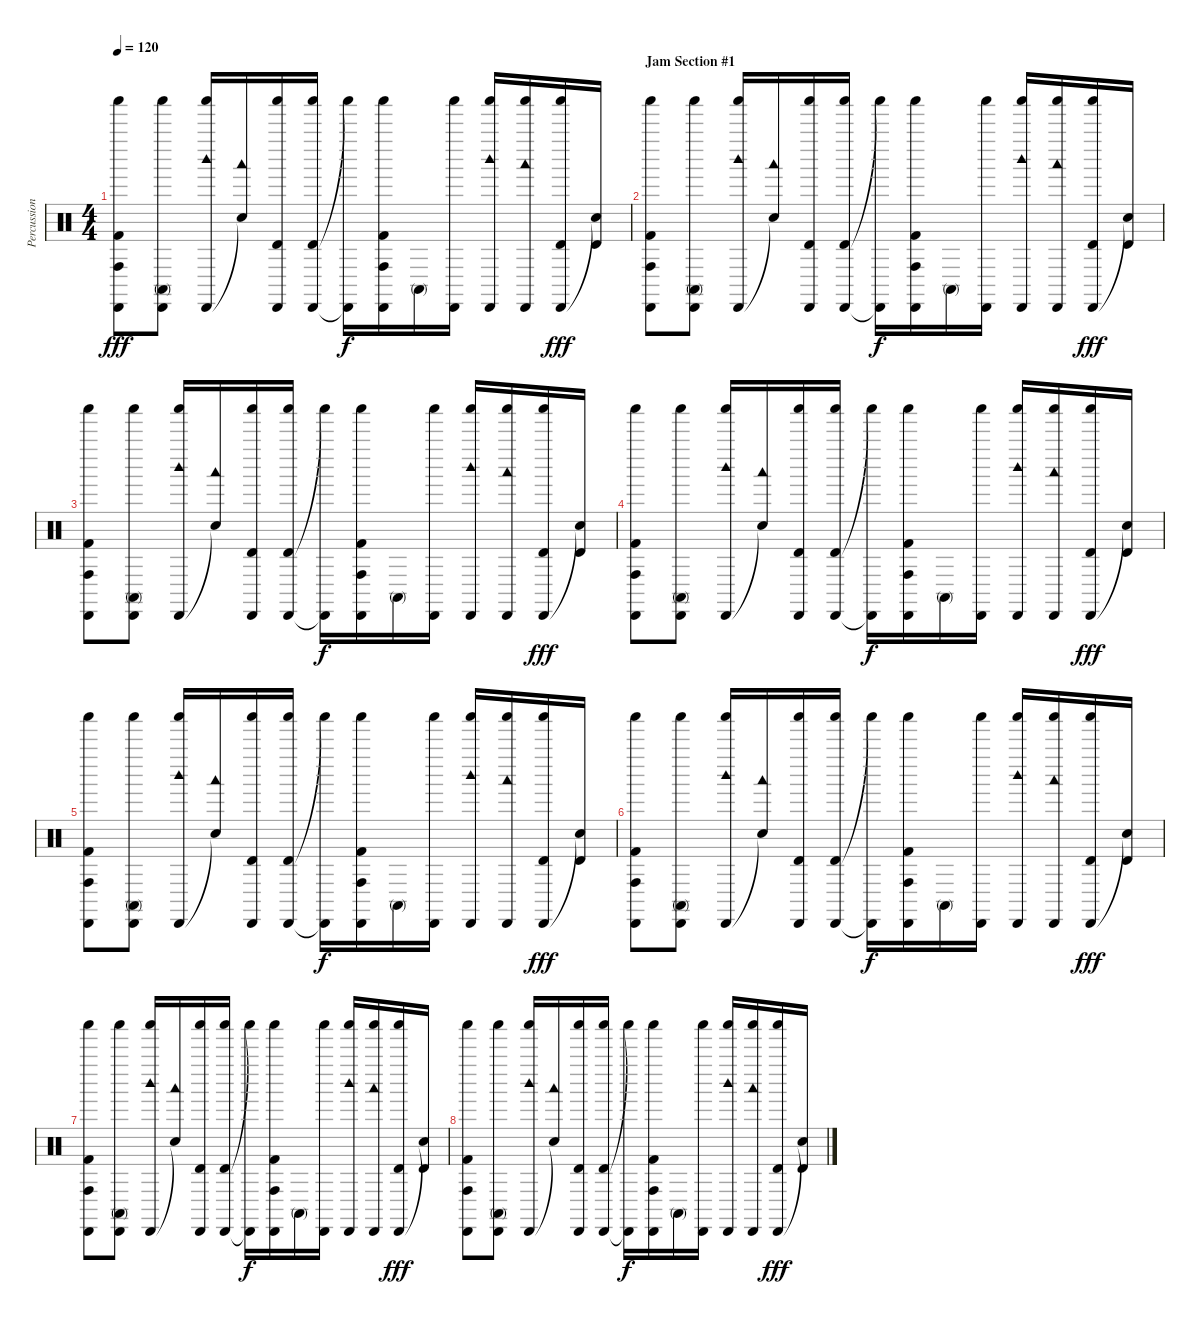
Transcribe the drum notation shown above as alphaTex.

\track ("Percussion" "Percussion") {instrument percussion}
\staff {score}
\articulation defaults
\ts (4 4)
\tempo 120
\clef neutral
\ks c
("Cabasa (hit)" "Conga high (hit)" "Kick (hit) 2" "Shaker (hit)").8{dy fff} ("Cabasa (hit)" "Conga high (mute)" "Shaker (hit)").8 ("Cabasa (hit)" "Woodblock high (hit)" "Shaker (hit)").16 ("Snare (hit)"{t} "Woodblock low (hit)").16 ("Cabasa (hit)" "Timbale high (hit)" "Shaker (hit)").16 ("Cabasa (hit)" "Timbale high (hit)" "Shaker (hit)").16 ("Cabasa (hit)"{t} "Shaker (hit)"{t}).16{dy f} ("Cabasa (hit)" "Conga high (hit)" "Kick (hit) 2" "Shaker (hit)").16 "Conga high (mute)".16 ("Cabasa (hit)" "Shaker (hit)").16 ("Cabasa (hit)" "Woodblock high (hit)" "Shaker (hit)").16 ("Cabasa (hit)" "Woodblock low (hit)" "Shaker (hit)").16 ("Cabasa (hit)" "Timbale high (hit)" "Shaker (hit)").16{dy fff} ("Snare (hit)"{t} "Timbale high (hit)").16 |
\section ("" "Jam Section #1")
("Cabasa (hit)" "Conga high (hit)" "Kick (hit) 2" "Shaker (hit)").8 ("Cabasa (hit)" "Conga high (mute)" "Shaker (hit)").8 ("Cabasa (hit)" "Woodblock high (hit)" "Shaker (hit)").16 ("Snare (hit)"{t} "Woodblock low (hit)").16 ("Cabasa (hit)" "Timbale high (hit)" "Shaker (hit)").16 ("Cabasa (hit)" "Timbale high (hit)" "Shaker (hit)").16 ("Cabasa (hit)"{t} "Shaker (hit)"{t}).16{dy f} ("Cabasa (hit)" "Conga high (hit)" "Kick (hit) 2" "Shaker (hit)").16 "Conga high (mute)".16 ("Cabasa (hit)" "Shaker (hit)").16 ("Cabasa (hit)" "Woodblock high (hit)" "Shaker (hit)").16 ("Cabasa (hit)" "Woodblock low (hit)" "Shaker (hit)").16 ("Cabasa (hit)" "Timbale high (hit)" "Shaker (hit)").16{dy fff} ("Snare (hit)"{t} "Timbale high (hit)").16 |
("Cabasa (hit)" "Conga high (hit)" "Kick (hit) 2" "Shaker (hit)").8 ("Cabasa (hit)" "Conga high (mute)" "Shaker (hit)").8 ("Cabasa (hit)" "Woodblock high (hit)" "Shaker (hit)").16 ("Snare (hit)"{t} "Woodblock low (hit)").16 ("Cabasa (hit)" "Timbale high (hit)" "Shaker (hit)").16 ("Cabasa (hit)" "Timbale high (hit)" "Shaker (hit)").16 ("Cabasa (hit)"{t} "Shaker (hit)"{t}).16{dy f} ("Cabasa (hit)" "Conga high (hit)" "Kick (hit) 2" "Shaker (hit)").16 "Conga high (mute)".16 ("Cabasa (hit)" "Shaker (hit)").16 ("Cabasa (hit)" "Woodblock high (hit)" "Shaker (hit)").16 ("Cabasa (hit)" "Woodblock low (hit)" "Shaker (hit)").16 ("Cabasa (hit)" "Timbale high (hit)" "Shaker (hit)").16{dy fff} ("Snare (hit)"{t} "Timbale high (hit)").16 |
("Cabasa (hit)" "Conga high (hit)" "Kick (hit) 2" "Shaker (hit)").8 ("Cabasa (hit)" "Conga high (mute)" "Shaker (hit)").8 ("Cabasa (hit)" "Woodblock high (hit)" "Shaker (hit)").16 ("Snare (hit)"{t} "Woodblock low (hit)").16 ("Cabasa (hit)" "Timbale high (hit)" "Shaker (hit)").16 ("Cabasa (hit)" "Timbale high (hit)" "Shaker (hit)").16 ("Cabasa (hit)"{t} "Shaker (hit)"{t}).16{dy f} ("Cabasa (hit)" "Conga high (hit)" "Kick (hit) 2" "Shaker (hit)").16 "Conga high (mute)".16 ("Cabasa (hit)" "Shaker (hit)").16 ("Cabasa (hit)" "Woodblock high (hit)" "Shaker (hit)").16 ("Cabasa (hit)" "Woodblock low (hit)" "Shaker (hit)").16 ("Cabasa (hit)" "Timbale high (hit)" "Shaker (hit)").16{dy fff} ("Snare (hit)"{t} "Timbale high (hit)").16 |
("Cabasa (hit)" "Conga high (hit)" "Kick (hit) 2" "Shaker (hit)").8 ("Cabasa (hit)" "Conga high (mute)" "Shaker (hit)").8 ("Cabasa (hit)" "Woodblock high (hit)" "Shaker (hit)").16 ("Snare (hit)"{t} "Woodblock low (hit)").16 ("Cabasa (hit)" "Timbale high (hit)" "Shaker (hit)").16 ("Cabasa (hit)" "Timbale high (hit)" "Shaker (hit)").16 ("Cabasa (hit)"{t} "Shaker (hit)"{t}).16{dy f} ("Cabasa (hit)" "Conga high (hit)" "Kick (hit) 2" "Shaker (hit)").16 "Conga high (mute)".16 ("Cabasa (hit)" "Shaker (hit)").16 ("Cabasa (hit)" "Woodblock high (hit)" "Shaker (hit)").16 ("Cabasa (hit)" "Woodblock low (hit)" "Shaker (hit)").16 ("Cabasa (hit)" "Timbale high (hit)" "Shaker (hit)").16{dy fff} ("Snare (hit)"{t} "Timbale high (hit)").16 |
("Cabasa (hit)" "Conga high (hit)" "Kick (hit) 2" "Shaker (hit)").8 ("Cabasa (hit)" "Conga high (mute)" "Shaker (hit)").8 ("Cabasa (hit)" "Woodblock high (hit)" "Shaker (hit)").16 ("Snare (hit)"{t} "Woodblock low (hit)").16 ("Cabasa (hit)" "Timbale high (hit)" "Shaker (hit)").16 ("Cabasa (hit)" "Timbale high (hit)" "Shaker (hit)").16 ("Cabasa (hit)"{t} "Shaker (hit)"{t}).16{dy f} ("Cabasa (hit)" "Conga high (hit)" "Kick (hit) 2" "Shaker (hit)").16 "Conga high (mute)".16 ("Cabasa (hit)" "Shaker (hit)").16 ("Cabasa (hit)" "Woodblock high (hit)" "Shaker (hit)").16 ("Cabasa (hit)" "Woodblock low (hit)" "Shaker (hit)").16 ("Cabasa (hit)" "Timbale high (hit)" "Shaker (hit)").16{dy fff} ("Snare (hit)"{t} "Timbale high (hit)").16 |
("Cabasa (hit)" "Conga high (hit)" "Kick (hit) 2" "Shaker (hit)").8 ("Cabasa (hit)" "Conga high (mute)" "Shaker (hit)").8 ("Cabasa (hit)" "Woodblock high (hit)" "Shaker (hit)").16 ("Snare (hit)"{t} "Woodblock low (hit)").16 ("Cabasa (hit)" "Timbale high (hit)" "Shaker (hit)").16 ("Cabasa (hit)" "Timbale high (hit)" "Shaker (hit)").16 ("Cabasa (hit)"{t} "Shaker (hit)"{t}).16{dy f} ("Cabasa (hit)" "Conga high (hit)" "Kick (hit) 2" "Shaker (hit)").16 "Conga high (mute)".16 ("Cabasa (hit)" "Shaker (hit)").16 ("Cabasa (hit)" "Woodblock high (hit)" "Shaker (hit)").16 ("Cabasa (hit)" "Woodblock low (hit)" "Shaker (hit)").16 ("Cabasa (hit)" "Timbale high (hit)" "Shaker (hit)").16{dy fff} ("Snare (hit)"{t} "Timbale high (hit)").16 |
("Cabasa (hit)" "Conga high (hit)" "Kick (hit) 2" "Shaker (hit)").8 ("Cabasa (hit)" "Conga high (mute)" "Shaker (hit)").8 ("Cabasa (hit)" "Woodblock high (hit)" "Shaker (hit)").16 ("Snare (hit)"{t} "Woodblock low (hit)").16 ("Cabasa (hit)" "Timbale high (hit)" "Shaker (hit)").16 ("Cabasa (hit)" "Timbale high (hit)" "Shaker (hit)").16 ("Cabasa (hit)"{t} "Shaker (hit)"{t}).16{dy f} ("Cabasa (hit)" "Conga high (hit)" "Kick (hit) 2" "Shaker (hit)").16 "Conga high (mute)".16 ("Cabasa (hit)" "Shaker (hit)").16 ("Cabasa (hit)" "Woodblock high (hit)" "Shaker (hit)").16 ("Cabasa (hit)" "Woodblock low (hit)" "Shaker (hit)").16 ("Cabasa (hit)" "Timbale high (hit)" "Shaker (hit)").16{dy fff} ("Snare (hit)"{t} "Timbale high (hit)").16
